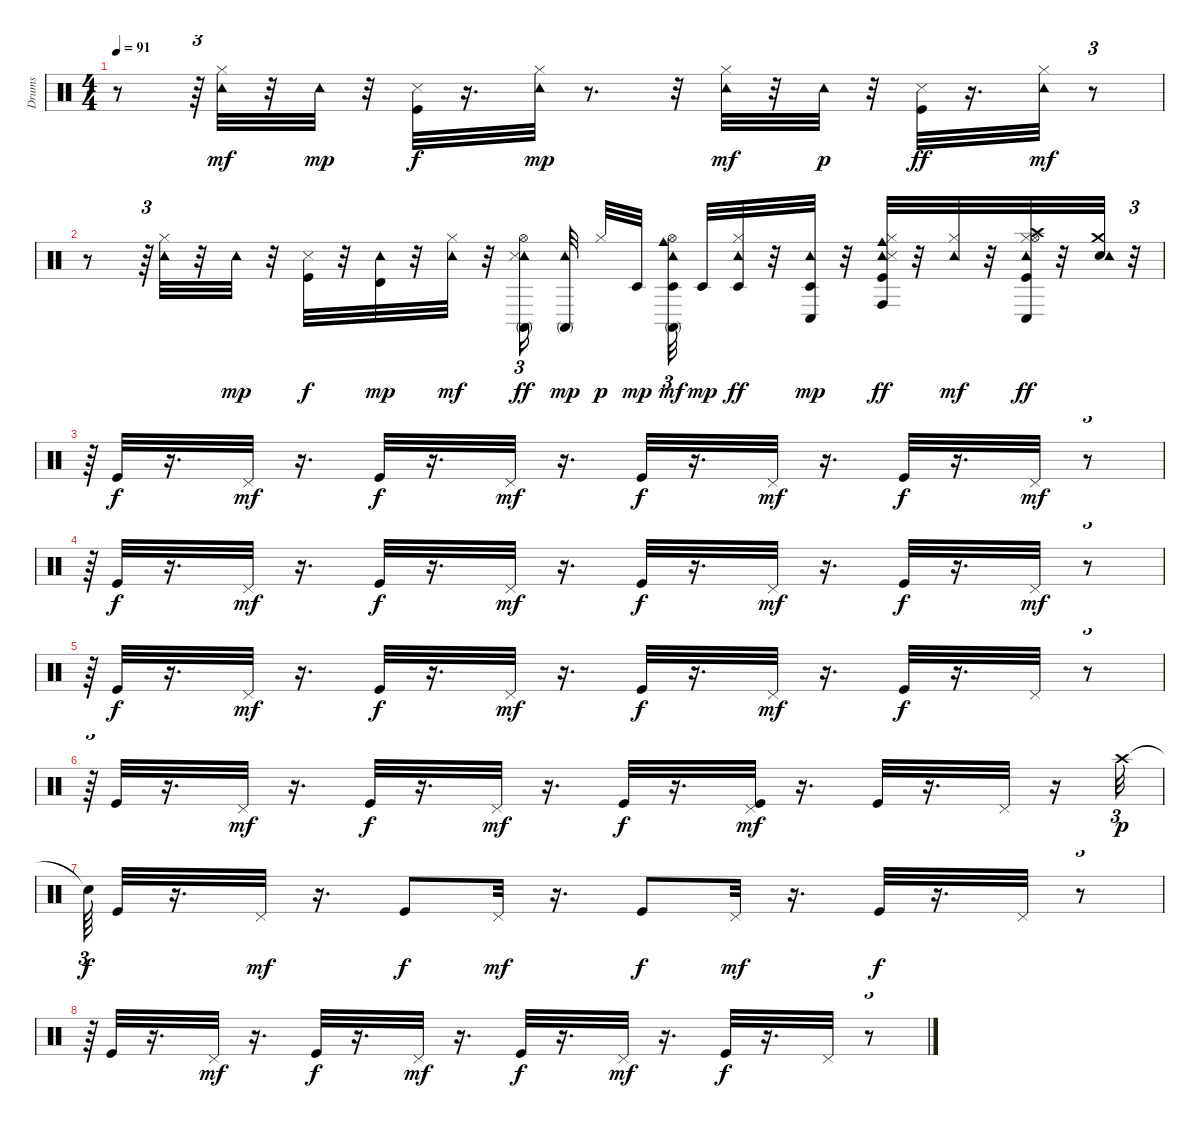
\track ("Drums" "Drums") {instrument percussion}
\staff {score}
\articulation defaults
\ts (4 4)
\tempo 91
\clef neutral
\ks c
r.8{dy mf} r.64{tu (3 2)} ("Tambourine (hit)" "Hi-Hat (closed)").32 r.32 "Tambourine (hit)".32{dy mp} r.32 ("Kick (hit)" "Snare (side stick) 3").32{dy f} r.16{d} ("Tambourine (hit)" "Hi-Hat (closed)").32{dy mp} r.8{d} r.32 ("Tambourine (hit)" "Hi-Hat (closed)").32{dy mf} r.32 "Tambourine (hit)".32{dy p} r.32 ("Snare (side stick) 3" "Kick (hit)").32{dy ff} r.16{d} ("Tambourine (hit)" "Hi-Hat (closed)").32{dy mf} r.8{tu (3 2)} |
r.8 r.64{tu (3 2)} ("Hi-Hat (closed)" "Tambourine (hit)").32 r.32 "Tambourine (hit)".32{dy mp} r.32 ("Kick (hit)" "Snare (side stick) 3").32{dy f} r.32 ("Tambourine (hit)" "Timbale high (hit)").32{dy mp} r.32 ("Tambourine (hit)" "Hi-Hat (closed)").32{dy mf} r.32 ("Tambourine (hit)" "Conga high (mute)" "Hi-Hat (open)" "Snare (side stick) 3").16{tu (3 2) dy ff} ("Tambourine (hit)" "Conga high (mute)").32{dy mp} "Hi-Hat (closed)".32{dy p} "Timbale low (hit)".32{dy mp} ("Cowbell medium (hit)" "Tambourine (hit)" "Conga high (mute)" "Hi-Hat (open)" "Timbale low (hit)").32{tu (3 2) dy mf} "Timbale low (hit)".32{dy mp} ("Tambourine (hit)" "Hi-Hat (closed)" "Timbale low (hit)").32{dy ff} r.32 ("Tambourine (hit)" "Conga low (hit)" "Timbale low (hit)").32{dy mp} r.32 ("Tambourine (hit)" "Snare (side stick) 3" "Kick (hit)" "Cowbell medium (hit)" "Conga high (hit)" "Hi-Hat (closed)").32{dy ff} r.32 ("Tambourine (hit)" "Hi-Hat (closed)").32{dy mf} r.32 ("Tambourine (hit)" "Hi-Hat (closed)" "Hi-Hat (open)" "Crash high (hit)" "Conga low (hit)" "Kick (hit)").32{dy ff} r.32 ("Metronome (bell)" "Tambourine (hit)" "Crash medium (hit)").32 r.32{tu (3 2)} |
r.64{tu (3 2)} "Kick (hit)".32{dy f} r.16{d} "Pedal Hi-Hat (hit)".32{dy mf} r.16{d} "Kick (hit)".32{dy f} r.16{d} "Pedal Hi-Hat (hit)".32{dy mf} r.16{d} "Kick (hit)".32{dy f} r.16{d} "Pedal Hi-Hat (hit)".32{dy mf} r.16{d} "Kick (hit)".32{dy f} r.16{d} "Pedal Hi-Hat (hit)".32{dy mf} r.8{tu (3 2)} |
r.64{tu (3 2)} "Kick (hit)".32{dy f} r.16{d} "Pedal Hi-Hat (hit)".32{dy mf} r.16{d} "Kick (hit)".32{dy f} r.16{d} "Pedal Hi-Hat (hit)".32{dy mf} r.16{d} "Kick (hit)".32{dy f} r.16{d} "Pedal Hi-Hat (hit)".32{dy mf} r.16{d} "Kick (hit)".32{dy f} r.16{d} "Pedal Hi-Hat (hit)".32{dy mf} r.8{tu (3 2)} |
r.64{tu (3 2)} "Kick (hit)".32{dy f} r.16{d} "Pedal Hi-Hat (hit)".32{dy mf} r.16{d} "Kick (hit)".32{dy f} r.16{d} "Pedal Hi-Hat (hit)".32{dy mf} r.16{d} "Kick (hit)".32{dy f} r.16{d} "Pedal Hi-Hat (hit)".32{dy mf} r.16{d} "Kick (hit)".32{dy f} r.16{d} "Pedal Hi-Hat (hit)".32 r.8{tu (3 2)} |
r.64{tu (3 2)} "Kick (hit)".32 r.16{d} "Pedal Hi-Hat (hit)".32{dy mf} r.16{d} "Kick (hit)".32{dy f} r.16{d} "Pedal Hi-Hat (hit)".32{dy mf} r.16{d} "Kick (hit)".32{dy f} r.16{d} ("Pedal Hi-Hat (hit)" "Kick (hit)").32{dy mf} r.16{d} "Kick (hit)".32 r.16{d} "Pedal Hi-Hat (hit)".32 r.16 "Crash high (hit)".32{tu (3 2) dy p} |
"Snare (hit)"{t}.64{tu (3 2) dy f} "Kick (hit)".32 r.16{d} "Pedal Hi-Hat (hit)".32{dy mf} r.16{d} "Kick (hit)".8{dy f} "Pedal Hi-Hat (hit)".32{dy mf} r.16{d} "Kick (hit)".8{dy f} "Pedal Hi-Hat (hit)".32{dy mf} r.16{d} "Kick (hit)".32{dy f} r.16{d} "Pedal Hi-Hat (hit)".32 r.8{tu (3 2)} |
r.64{tu (3 2)} "Kick (hit)".32 r.16{d} "Pedal Hi-Hat (hit)".32{dy mf} r.16{d} "Kick (hit)".32{dy f} r.16{d} "Pedal Hi-Hat (hit)".32{dy mf} r.16{d} "Kick (hit)".32{dy f} r.16{d} "Pedal Hi-Hat (hit)".32{dy mf} r.16{d} "Kick (hit)".32{dy f} r.16{d} "Pedal Hi-Hat (hit)".32 r.8{tu (3 2)}
